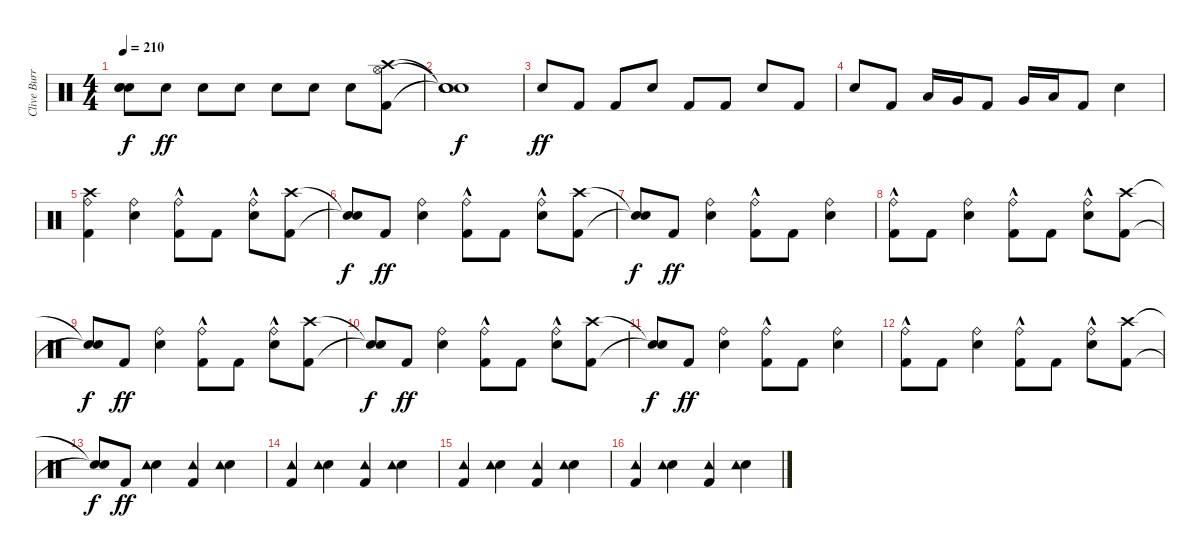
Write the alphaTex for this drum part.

\track ("Clive Burr" "Clive Burr") {instrument percussion}
\staff {score}
\articulation defaults
\ts (4 4)
\tempo 210
\clef neutral
\ks c
("Snare (hit)"{t} "Snare (hit)"{t} "Snare (hit)"{t}).8{dy f} "Snare (hit) 2".8{dy ff} "Snare (hit) 2".8 "Snare (hit) 2".8 "Snare (hit) 2".8 "Snare (hit) 2".8 "Snare (hit) 2".8 ("Kick (hit) 2" "Hi-Hat (open)" "Crash high (hit)").8 |
("Snare (hit)"{t} "Snare (hit)"{t} "Snare (hit)"{t}).1{dy f} |
"Snare (hit) 2".8{dy ff} "Kick (hit) 2".8 "Kick (hit) 2".8 "Snare (hit) 2".8 "Kick (hit) 2".8 "Kick (hit) 2".8 "Snare (hit) 2".8 "Kick (hit) 2".8 |
"Snare (hit) 2".8 "Kick (hit) 2".8 "Low Tom (hit)".16 "Very Low Tom (hit)".16 "Kick (hit) 2".8 "Very Low Tom (hit)".16 "Low Floor Tom (hit)".16 "Kick (hit) 2".8 "Snare (hit) 2".4 |
("Kick (hit) 2" "Crash high (hit)" "Ride (bell)").4 ("Snare (hit) 2" "Ride (bell)").4 ("Kick (hit) 2" "Ride (bell)"{hac}).8 "Kick (hit) 2".8 ("Snare (hit) 2" "Ride (bell)"{hac}).8 ("Kick (hit) 2" "Crash high (hit)").8 |
("Snare (hit)"{t} "Snare (hit)"{t}).8{dy f} "Kick (hit) 2".8{dy ff} ("Snare (hit) 2" "Ride (bell)").4 ("Kick (hit) 2" "Ride (bell)"{hac}).8 "Kick (hit) 2".8 ("Snare (hit) 2" "Ride (bell)"{hac}).8 ("Kick (hit) 2" "Crash high (hit)").8 |
("Snare (hit)"{t} "Snare (hit)"{t}).8{dy f} "Kick (hit) 2".8{dy ff} ("Snare (hit) 2" "Ride (bell)").4 ("Kick (hit) 2" "Ride (bell)"{hac}).8 "Kick (hit) 2".8 ("Snare (hit) 2" "Ride (bell)").4 |
("Kick (hit) 2" "Ride (bell)"{hac}).8 "Kick (hit) 2".8 ("Snare (hit) 2" "Ride (bell)").4 ("Kick (hit) 2" "Ride (bell)"{hac}).8 "Kick (hit) 2".8 ("Snare (hit) 2" "Ride (bell)"{hac}).8 ("Kick (hit) 2" "Crash high (hit)").8 |
("Snare (hit)"{t} "Snare (hit)"{t}).8{dy f} "Kick (hit) 2".8{dy ff} ("Snare (hit) 2" "Ride (bell)").4 ("Kick (hit) 2" "Ride (bell)"{hac}).8 "Kick (hit) 2".8 ("Snare (hit) 2" "Ride (bell)"{hac}).8 ("Kick (hit) 2" "Crash high (hit)").8 |
("Snare (hit)"{t} "Snare (hit)"{t}).8{dy f} "Kick (hit) 2".8{dy ff} ("Snare (hit) 2" "Ride (bell)").4 ("Kick (hit) 2" "Ride (bell)"{hac}).8 "Kick (hit) 2".8 ("Snare (hit) 2" "Ride (bell)"{hac}).8 ("Kick (hit) 2" "Crash high (hit)").8 |
("Snare (hit)"{t} "Snare (hit)"{t}).8{dy f} "Kick (hit) 2".8{dy ff} ("Snare (hit) 2" "Ride (bell)").4 ("Kick (hit) 2" "Ride (bell)"{hac}).8 "Kick (hit) 2".8 ("Snare (hit) 2" "Ride (bell)").4 |
("Kick (hit) 2" "Ride (bell)"{hac}).8 "Kick (hit) 2".8 ("Snare (hit) 2" "Ride (bell)").4 ("Kick (hit) 2" "Ride (bell)"{hac}).8 "Kick (hit) 2".8 ("Snare (hit) 2" "Ride (bell)"{hac}).8 ("Kick (hit) 2" "Crash high (hit)").8 |
("Snare (hit)"{t} "Snare (hit)"{t}).8{dy f} "Kick (hit) 2".8{dy ff} ("Snare (hit) 2" "Tambourine (hit)").4 ("Kick (hit) 2" "Tambourine (hit)").4 ("Snare (hit) 2" "Tambourine (hit)").4 |
("Kick (hit) 2" "Tambourine (hit)").4 ("Snare (hit) 2" "Tambourine (hit)").4 ("Kick (hit) 2" "Tambourine (hit)").4 ("Snare (hit) 2" "Tambourine (hit)").4 |
("Kick (hit) 2" "Tambourine (hit)").4 ("Snare (hit) 2" "Tambourine (hit)").4 ("Kick (hit) 2" "Tambourine (hit)").4 ("Snare (hit) 2" "Tambourine (hit)").4 |
("Kick (hit) 2" "Tambourine (hit)").4 ("Snare (hit) 2" "Tambourine (hit)").4 ("Kick (hit) 2" "Tambourine (hit)").4 ("Snare (hit) 2" "Tambourine (hit)").4
